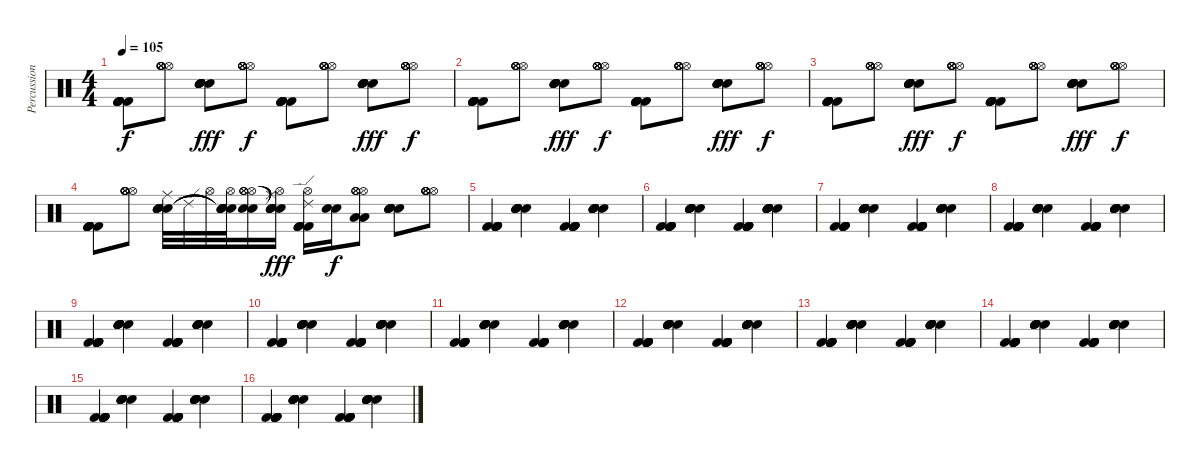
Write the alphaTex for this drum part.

\track ("Percussion" "Percussion") {instrument percussion}
\staff {score}
\articulation defaults
\ts (4 4)
\tempo 105
\clef neutral
\ks c
("Kick (hit) 2" "Kick (hit) 2" "Kick (hit) 2" "Kick (hit) 2" "Kick (hit) 2" "Kick (hit) 2").8{dy f} ("Hi-Hat (open)" "Hi-Hat (open)" "Hi-Hat (open)" "Hi-Hat (open)" "Hi-Hat (open)" "Hi-Hat (open)").8 ("Electric Snare (hit)" "Electric Snare (hit)" "Electric Snare (hit)" "Snare (hit) 2" "Snare (hit) 2" "Snare (hit) 2").8{dy fff} ("Hi-Hat (open)" "Hi-Hat (open)" "Hi-Hat (open)" "Hi-Hat (open)" "Hi-Hat (open)" "Hi-Hat (open)").8{dy f} ("Kick (hit) 2" "Kick (hit) 2" "Kick (hit) 2" "Kick (hit) 2" "Kick (hit) 2" "Kick (hit) 2").8 ("Hi-Hat (open)" "Hi-Hat (open)" "Hi-Hat (open)" "Hi-Hat (open)" "Hi-Hat (open)" "Hi-Hat (open)").8 ("Electric Snare (hit)" "Electric Snare (hit)" "Electric Snare (hit)" "Snare (hit) 2" "Snare (hit) 2" "Snare (hit) 2").8{dy fff} ("Hi-Hat (open)" "Hi-Hat (open)" "Hi-Hat (open)" "Hi-Hat (open)" "Hi-Hat (open)" "Hi-Hat (open)").8{dy f} |
("Kick (hit) 2" "Kick (hit) 2" "Kick (hit) 2" "Kick (hit) 2" "Kick (hit) 2" "Kick (hit) 2").8 ("Hi-Hat (open)" "Hi-Hat (open)" "Hi-Hat (open)" "Hi-Hat (open)" "Hi-Hat (open)" "Hi-Hat (open)").8 ("Electric Snare (hit)" "Electric Snare (hit)" "Electric Snare (hit)" "Snare (hit) 2" "Snare (hit) 2" "Snare (hit) 2").8{dy fff} ("Hi-Hat (open)" "Hi-Hat (open)" "Hi-Hat (open)" "Hi-Hat (open)" "Hi-Hat (open)" "Hi-Hat (open)").8{dy f} ("Kick (hit) 2" "Kick (hit) 2" "Kick (hit) 2" "Kick (hit) 2" "Kick (hit) 2" "Kick (hit) 2").8 ("Hi-Hat (open)" "Hi-Hat (open)" "Hi-Hat (open)" "Hi-Hat (open)" "Hi-Hat (open)" "Hi-Hat (open)").8 ("Electric Snare (hit)" "Electric Snare (hit)" "Electric Snare (hit)" "Snare (hit) 2" "Snare (hit) 2" "Snare (hit) 2").8{dy fff} ("Hi-Hat (open)" "Hi-Hat (open)" "Hi-Hat (open)" "Hi-Hat (open)" "Hi-Hat (open)" "Hi-Hat (open)").8{dy f} |
("Kick (hit) 2" "Kick (hit) 2" "Kick (hit) 2" "Kick (hit) 2" "Kick (hit) 2" "Kick (hit) 2").8 ("Hi-Hat (open)" "Hi-Hat (open)" "Hi-Hat (open)" "Hi-Hat (open)" "Hi-Hat (open)" "Hi-Hat (open)").8 ("Electric Snare (hit)" "Electric Snare (hit)" "Electric Snare (hit)" "Snare (hit) 2" "Snare (hit) 2" "Snare (hit) 2").8{dy fff} ("Hi-Hat (open)" "Hi-Hat (open)" "Hi-Hat (open)" "Hi-Hat (open)" "Hi-Hat (open)" "Hi-Hat (open)").8{dy f} ("Kick (hit) 2" "Kick (hit) 2" "Kick (hit) 2" "Kick (hit) 2" "Kick (hit) 2" "Kick (hit) 2").8 ("Hi-Hat (open)" "Hi-Hat (open)" "Hi-Hat (open)" "Hi-Hat (open)" "Hi-Hat (open)" "Hi-Hat (open)").8 ("Electric Snare (hit)" "Electric Snare (hit)" "Electric Snare (hit)" "Snare (hit) 2" "Snare (hit) 2" "Snare (hit) 2").8{dy fff} ("Hi-Hat (open)" "Hi-Hat (open)" "Hi-Hat (open)" "Hi-Hat (open)" "Hi-Hat (open)" "Hi-Hat (open)").8{dy f} |
("Kick (hit) 2" "Kick (hit) 2" "Kick (hit) 2" "Kick (hit) 2" "Kick (hit) 2" "Kick (hit) 2").8 ("Hi-Hat (open)" "Hi-Hat (open)" "Hi-Hat (open)" "Hi-Hat (open)" "Hi-Hat (open)" "Hi-Hat (open)").8 ("Ride (middle)" "Electric Snare (hit)" "Electric Snare (hit)" "Electric Snare (hit)" "Electric Snare (hit)" "Electric Snare (hit)").32 "Ride (edge) 2".32 "Hi-Hat (open)".32 ("Hi-Hat (open)" "Snare (hit)"{t} "Snare (hit)"{t} "Snare (hit)"{t} "Snare (hit)"{t} "Snare (hit)"{t}).32 ("Electric Snare (hit)" "Electric Snare (hit)" "Hi-Hat (open)" "Hi-Hat (open)" "Hi-Hat (open)" "Hi-Hat (open)").16 ("Ride (middle)" "Hi-Hat (open)" "Snare (hit)"{t} "Snare (hit)"{t} "Snare (hit)"{t} "Snare (hit)"{t}).16{dy fff} ("Ride (edge) 2" "Hi-Hat (open)" "Kick (hit) 2" "Kick (hit) 2" "Kick (hit) 2" "Kick (hit) 2").16 ("Electric Snare (hit)" "Electric Snare (hit)").16{dy f} ("Low Tom (hit)" "Low Tom (hit)" "Hi-Hat (open)" "Hi-Hat (open)" "Hi-Hat (open)" "Hi-Hat (open)").8 ("Electric Snare (hit)" "Electric Snare (hit)" "Electric Snare (hit)" "Electric Snare (hit)" "Electric Snare (hit)" "Electric Snare (hit)").8 ("Hi-Hat (open)" "Hi-Hat (open)" "Hi-Hat (open)" "Hi-Hat (open)" "Hi-Hat (open)" "Hi-Hat (open)").8 |
("Kick (hit) 2" "Kick (hit) 2" "Kick (hit) 2" "Kick (hit) 2" "Kick (hit) 2" "Kick (hit) 2").4 ("Electric Snare (hit)" "Electric Snare (hit)" "Electric Snare (hit)" "Electric Snare (hit)" "Electric Snare (hit)" "Electric Snare (hit)").4 ("Kick (hit) 2" "Kick (hit) 2" "Kick (hit) 2" "Kick (hit) 2" "Kick (hit) 2" "Kick (hit) 2").4 ("Electric Snare (hit)" "Electric Snare (hit)" "Electric Snare (hit)" "Electric Snare (hit)" "Electric Snare (hit)" "Electric Snare (hit)").4 |
("Kick (hit) 2" "Kick (hit) 2" "Kick (hit) 2" "Kick (hit) 2" "Kick (hit) 2" "Kick (hit) 2").4 ("Electric Snare (hit)" "Electric Snare (hit)" "Electric Snare (hit)" "Electric Snare (hit)" "Electric Snare (hit)" "Electric Snare (hit)").4 ("Kick (hit) 2" "Kick (hit) 2" "Kick (hit) 2" "Kick (hit) 2" "Kick (hit) 2" "Kick (hit) 2").4 ("Electric Snare (hit)" "Electric Snare (hit)" "Electric Snare (hit)" "Electric Snare (hit)" "Electric Snare (hit)" "Electric Snare (hit)").4 |
("Kick (hit) 2" "Kick (hit) 2" "Kick (hit) 2" "Kick (hit) 2" "Kick (hit) 2" "Kick (hit) 2").4 ("Electric Snare (hit)" "Electric Snare (hit)" "Electric Snare (hit)" "Electric Snare (hit)" "Electric Snare (hit)" "Electric Snare (hit)").4 ("Kick (hit) 2" "Kick (hit) 2" "Kick (hit) 2" "Kick (hit) 2" "Kick (hit) 2" "Kick (hit) 2").4 ("Electric Snare (hit)" "Electric Snare (hit)" "Electric Snare (hit)" "Electric Snare (hit)" "Electric Snare (hit)" "Electric Snare (hit)").4 |
("Kick (hit) 2" "Kick (hit) 2" "Kick (hit) 2" "Kick (hit) 2" "Kick (hit) 2" "Kick (hit) 2").4 ("Electric Snare (hit)" "Electric Snare (hit)" "Electric Snare (hit)" "Electric Snare (hit)" "Electric Snare (hit)" "Electric Snare (hit)").4 ("Kick (hit) 2" "Kick (hit) 2" "Kick (hit) 2" "Kick (hit) 2" "Kick (hit) 2" "Kick (hit) 2").4 ("Electric Snare (hit)" "Electric Snare (hit)" "Electric Snare (hit)" "Electric Snare (hit)" "Electric Snare (hit)" "Electric Snare (hit)").4 |
("Kick (hit) 2" "Kick (hit) 2" "Kick (hit) 2" "Kick (hit) 2" "Kick (hit) 2" "Kick (hit) 2").4 ("Electric Snare (hit)" "Electric Snare (hit)" "Electric Snare (hit)" "Electric Snare (hit)" "Electric Snare (hit)" "Electric Snare (hit)").4 ("Kick (hit) 2" "Kick (hit) 2" "Kick (hit) 2" "Kick (hit) 2" "Kick (hit) 2" "Kick (hit) 2").4 ("Electric Snare (hit)" "Electric Snare (hit)" "Electric Snare (hit)" "Electric Snare (hit)" "Electric Snare (hit)" "Electric Snare (hit)").4 |
("Kick (hit) 2" "Kick (hit) 2" "Kick (hit) 2" "Kick (hit) 2" "Kick (hit) 2" "Kick (hit) 2").4 ("Electric Snare (hit)" "Electric Snare (hit)" "Electric Snare (hit)" "Electric Snare (hit)" "Electric Snare (hit)" "Electric Snare (hit)").4 ("Kick (hit) 2" "Kick (hit) 2" "Kick (hit) 2" "Kick (hit) 2" "Kick (hit) 2" "Kick (hit) 2").4 ("Electric Snare (hit)" "Electric Snare (hit)" "Electric Snare (hit)" "Electric Snare (hit)" "Electric Snare (hit)" "Electric Snare (hit)").4 |
("Kick (hit) 2" "Kick (hit) 2" "Kick (hit) 2" "Kick (hit) 2" "Kick (hit) 2" "Kick (hit) 2").4 ("Electric Snare (hit)" "Electric Snare (hit)" "Electric Snare (hit)" "Electric Snare (hit)" "Electric Snare (hit)" "Electric Snare (hit)").4 ("Kick (hit) 2" "Kick (hit) 2" "Kick (hit) 2" "Kick (hit) 2" "Kick (hit) 2" "Kick (hit) 2").4 ("Electric Snare (hit)" "Electric Snare (hit)" "Electric Snare (hit)" "Electric Snare (hit)" "Electric Snare (hit)" "Electric Snare (hit)").4 |
("Kick (hit) 2" "Kick (hit) 2" "Kick (hit) 2" "Kick (hit) 2" "Kick (hit) 2" "Kick (hit) 2").4 ("Electric Snare (hit)" "Electric Snare (hit)" "Electric Snare (hit)" "Electric Snare (hit)" "Electric Snare (hit)" "Electric Snare (hit)").4 ("Kick (hit) 2" "Kick (hit) 2" "Kick (hit) 2" "Kick (hit) 2" "Kick (hit) 2" "Kick (hit) 2").4 ("Electric Snare (hit)" "Electric Snare (hit)" "Electric Snare (hit)" "Electric Snare (hit)" "Electric Snare (hit)" "Electric Snare (hit)").4 |
("Kick (hit) 2" "Kick (hit) 2" "Kick (hit) 2" "Kick (hit) 2" "Kick (hit) 2" "Kick (hit) 2").4 ("Electric Snare (hit)" "Electric Snare (hit)" "Electric Snare (hit)" "Electric Snare (hit)" "Electric Snare (hit)" "Electric Snare (hit)").4 ("Kick (hit) 2" "Kick (hit) 2" "Kick (hit) 2" "Kick (hit) 2" "Kick (hit) 2" "Kick (hit) 2").4 ("Electric Snare (hit)" "Electric Snare (hit)" "Electric Snare (hit)" "Electric Snare (hit)" "Electric Snare (hit)" "Electric Snare (hit)").4 |
("Kick (hit) 2" "Kick (hit) 2" "Kick (hit) 2" "Kick (hit) 2" "Kick (hit) 2" "Kick (hit) 2").4 ("Electric Snare (hit)" "Electric Snare (hit)" "Electric Snare (hit)" "Electric Snare (hit)" "Electric Snare (hit)" "Electric Snare (hit)").4 ("Kick (hit) 2" "Kick (hit) 2" "Kick (hit) 2" "Kick (hit) 2" "Kick (hit) 2" "Kick (hit) 2").4 ("Electric Snare (hit)" "Electric Snare (hit)" "Electric Snare (hit)" "Electric Snare (hit)" "Electric Snare (hit)" "Electric Snare (hit)").4 |
("Kick (hit) 2" "Kick (hit) 2" "Kick (hit) 2" "Kick (hit) 2" "Kick (hit) 2" "Kick (hit) 2").4 ("Electric Snare (hit)" "Electric Snare (hit)" "Electric Snare (hit)" "Electric Snare (hit)" "Electric Snare (hit)" "Electric Snare (hit)").4 ("Kick (hit) 2" "Kick (hit) 2" "Kick (hit) 2" "Kick (hit) 2" "Kick (hit) 2" "Kick (hit) 2").4 ("Electric Snare (hit)" "Electric Snare (hit)" "Electric Snare (hit)" "Electric Snare (hit)" "Electric Snare (hit)" "Electric Snare (hit)").4 |
("Kick (hit) 2" "Kick (hit) 2" "Kick (hit) 2" "Kick (hit) 2" "Kick (hit) 2" "Kick (hit) 2").4 ("Electric Snare (hit)" "Electric Snare (hit)" "Electric Snare (hit)" "Electric Snare (hit)" "Electric Snare (hit)" "Electric Snare (hit)").4 ("Kick (hit) 2" "Kick (hit) 2" "Kick (hit) 2" "Kick (hit) 2" "Kick (hit) 2" "Kick (hit) 2").4 ("Electric Snare (hit)" "Electric Snare (hit)" "Electric Snare (hit)" "Electric Snare (hit)" "Electric Snare (hit)" "Electric Snare (hit)").4
